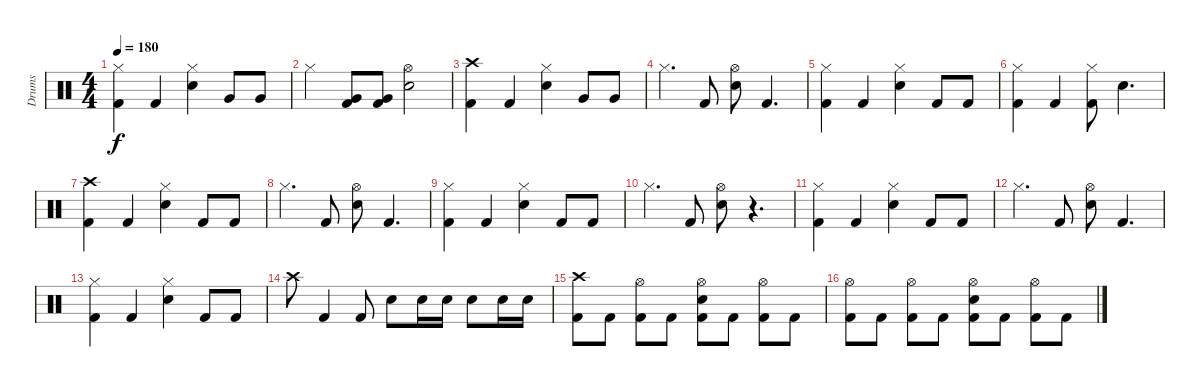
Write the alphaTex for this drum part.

\track ("Drums" "Drums") {instrument percussion}
\staff {score}
\articulation defaults
\ts (4 4)
\tempo 180
\clef neutral
\ks c
("Hi-Hat (closed)" "Kick (hit) 2").4{dy f} "Kick (hit) 2".4 ("Hi-Hat (closed)" "Snare (hit) 2").4 "Very Low Tom (hit)".8 "Very Low Tom (hit)".8 |
"Hi-Hat (closed)".4 ("Very Low Tom (hit)" "Kick (hit) 2").8 ("Very Low Tom (hit)" "Kick (hit) 2").8 ("Hi-Hat (open)" "Snare (hit) 2").2 |
("Crash high (hit)" "Kick (hit) 2").4 "Kick (hit) 2".4 ("Hi-Hat (closed)" "Snare (hit) 2").4 "Very Low Tom (hit)".8 "Very Low Tom (hit)".8 |
"Hi-Hat (closed)".4{d} "Kick (hit) 2".8 ("Hi-Hat (open)" "Snare (hit) 2").8 "Kick (hit) 2".4{d} |
("Hi-Hat (closed)" "Kick (hit) 2").4 "Kick (hit) 2".4 ("Hi-Hat (closed)" "Snare (hit) 2").4 "Kick (hit) 2".8 "Kick (hit) 2".8 |
("Hi-Hat (closed)" "Kick (hit) 2").4 "Kick (hit) 2".4 ("Hi-Hat (closed)" "Kick (hit) 2").8 "Snare (hit) 2".4{d} |
("Crash high (hit)" "Kick (hit) 2").4 "Kick (hit) 2".4 ("Hi-Hat (closed)" "Snare (hit) 2").4 "Kick (hit) 2".8 "Kick (hit) 2".8 |
"Hi-Hat (closed)".4{d} "Kick (hit) 2".8 ("Hi-Hat (open)" "Snare (hit) 2").8 "Kick (hit) 2".4{d} |
("Hi-Hat (closed)" "Kick (hit) 2").4 "Kick (hit) 2".4 ("Hi-Hat (closed)" "Snare (hit) 2").4 "Kick (hit) 2".8 "Kick (hit) 2".8 |
"Hi-Hat (closed)".4{d} "Kick (hit) 2".8 ("Hi-Hat (open)" "Snare (hit) 2").8 r.4{d} |
("Hi-Hat (closed)" "Kick (hit) 2").4 "Kick (hit) 2".4 ("Hi-Hat (closed)" "Snare (hit) 2").4 "Kick (hit) 2".8 "Kick (hit) 2".8 |
"Hi-Hat (closed)".4{d} "Kick (hit) 2".8 ("Hi-Hat (open)" "Snare (hit) 2").8 "Kick (hit) 2".4{d} |
("Hi-Hat (closed)" "Kick (hit) 2").4 "Kick (hit) 2".4 ("Hi-Hat (closed)" "Snare (hit) 2").4 "Kick (hit) 2".8 "Kick (hit) 2".8 |
"Crash high (hit)".8 "Kick (hit) 2".4 "Kick (hit) 2".8 "Snare (hit) 2".8 "Snare (hit) 2".16 "Snare (hit) 2".16 "Snare (hit) 2".8 "Snare (hit) 2".16 "Snare (hit) 2".16 |
("Crash high (hit)" "Kick (hit) 2").8 "Kick (hit) 2".8 ("Hi-Hat (open)" "Kick (hit) 2").8 "Kick (hit) 2".8 ("Hi-Hat (open)" "Snare (hit) 2" "Kick (hit) 2").8 "Kick (hit) 2".8 ("Hi-Hat (open)" "Kick (hit) 2").8 "Kick (hit) 2".8 |
("Hi-Hat (open)" "Kick (hit) 2").8 "Kick (hit) 2".8 ("Hi-Hat (open)" "Kick (hit) 2").8 "Kick (hit) 2".8 ("Hi-Hat (open)" "Snare (hit) 2" "Kick (hit) 2").8 "Kick (hit) 2".8 ("Hi-Hat (open)" "Kick (hit) 2").8 "Kick (hit) 2".8
